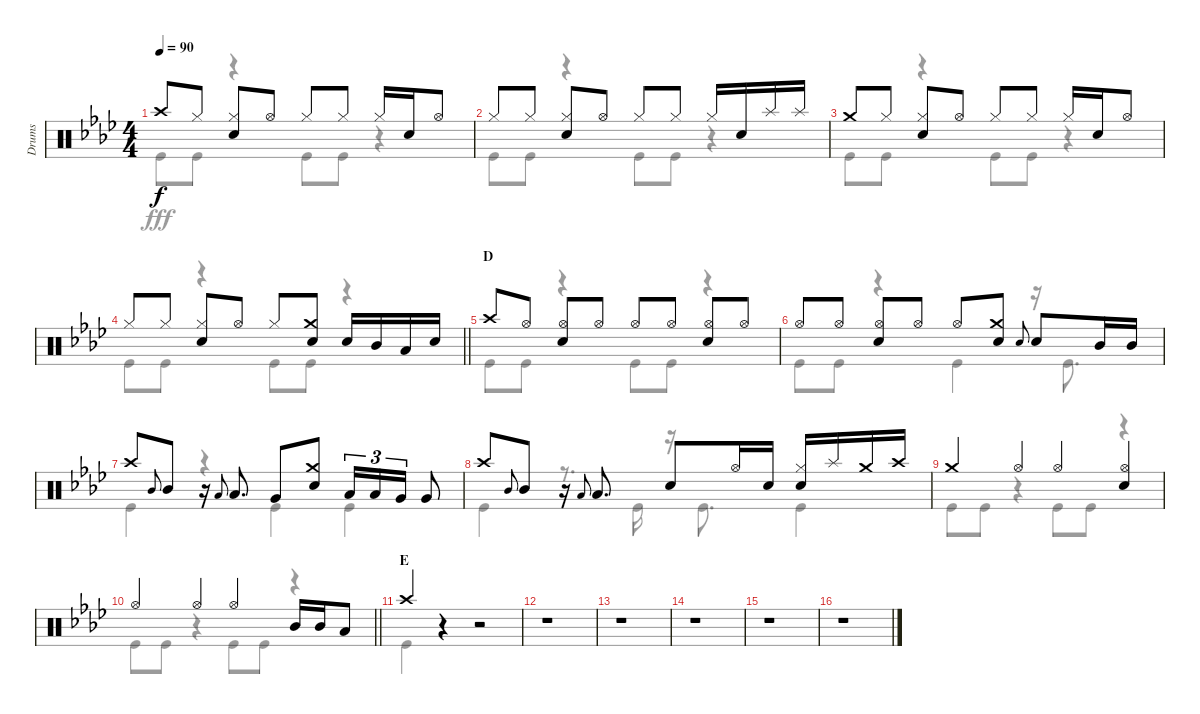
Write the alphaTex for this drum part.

\track ("Drums" "Drums") {instrument percussion}
\staff {score}
\articulation defaults
\voice
\ts (4 4)
\tempo 90
\clef neutral
\ks ab "Crash high (hit)".8{dy f} "Hi-Hat (closed)".8
("Hi-Hat (closed)" "Snare (hit) 2").8 "Hi-Hat (open)".8 "Hi-Hat (closed)".8 "Hi-Hat (closed)".8 "Hi-Hat (closed)".16 "Snare (hit) 2".16 "Hi-Hat (open)".8 |
"Hi-Hat (closed)".8 "Hi-Hat (closed)".8 ("Hi-Hat (closed)" "Snare (hit) 2").8 "Hi-Hat (open)".8 "Hi-Hat (closed)".8 "Hi-Hat (closed)".8 "Hi-Hat (closed)".16 "Snare (hit) 2".16 "Splash (hit)".16 "Splash (hit)".16 |
"Crash medium (hit)".8 "Hi-Hat (closed)".8 ("Hi-Hat (closed)" "Snare (hit) 2").8 "Hi-Hat (open)".8 "Hi-Hat (closed)".8 "Hi-Hat (closed)".8 "Hi-Hat (closed)".16 "Snare (hit) 2".16 "Hi-Hat (open)".8 |
\barLineRight lightlight "Hi-Hat (closed)".8 "Hi-Hat (closed)".8
("Hi-Hat (closed)" "Snare (hit) 2").8 "Hi-Hat (open)".8 "Hi-Hat (closed)".8 ("Crash medium (hit)" "Snare (hit) 2").8 "Snare (hit) 2".16 "Mid Tom (hit)".16 "Low Tom (hit)".16 "Snare (hit) 2".16 |
\section ("" "D")
"Crash high (hit)".8 "Hi-Hat (open)".8 ("Hi-Hat (open)" "Snare (hit) 2").8 "Hi-Hat (open)".8 "Hi-Hat (open)".8 "Hi-Hat (open)".8 ("Hi-Hat (open)" "Snare (hit) 2").8 "Hi-Hat (open)".8 |
"Hi-Hat (open)".8 "Hi-Hat (open)".8 ("Hi-Hat (open)" "Snare (hit) 2").8 "Hi-Hat (open)".8 "Hi-Hat (open)".8 ("Crash medium (hit)" "Snare (hit) 2").8 "Snare (hit) 2".8{gr onbeat} "Snare (hit) 2".8 "Mid Tom (hit)".16 "Mid Tom (hit)".16 |
"Crash high (hit)".8 "Mid Tom (hit)".8{gr onbeat} "Mid Tom (hit)".8 r.16 "Low Tom (hit)".8{gr onbeat} "Low Tom (hit)".8{d} "Very Low Tom (hit)".8 ("Crash medium (hit)" "Snare (hit) 2").8 "Low Tom (hit)".16{tu (3 2)} "Low Tom (hit)".16{tu (3 2)} "Very Low Tom (hit)".16{tu (3 2)} "Very Low Tom (hit)".8 |
"Crash high (hit)".8 "Mid Tom (hit)".8{gr onbeat} "Mid Tom (hit)".8 r.16 "Low Tom (hit)".8{gr onbeat} "Low Tom (hit)".8{d} "Snare (hit) 2".8 "Hi-Hat (open)".16 "Snare (hit) 2".16 ("Hi-Hat (closed)" "Snare (hit) 2").16 "Splash (hit)".16 "Crash medium (hit)".16 "Crash high (hit)".16 |
"Crash medium (hit)".4 "Hi-Hat (open)".4 "Hi-Hat (open)".4 ("Hi-Hat (open)" "Snare (hit) 2").4 |
\barLineRight lightlight "Hi-Hat (open)".4 "Hi-Hat (open)".4 "Hi-Hat (open)".4 "Mid Tom (hit)".16 "Mid Tom (hit)".16 "Low Tom (hit)".8
|
\section ("" "E")
"Crash high (hit)".4 r.4 r.2 |
r.1 |
r.1 |
r.1 |
r.1 |
r.1
\voice
\clef neutral
\ottava regular
\simile none
\ks ab "Kick (hit)".8{dy fff} "Kick (hit)".8
r.4 "Kick (hit)".8 "Kick (hit)".8 r.4 |
"Kick (hit)".8 "Kick (hit)".8 r.4 "Kick (hit)".8 "Kick (hit)".8 r.4 |
"Kick (hit)".8 "Kick (hit)".8 r.4 "Kick (hit)".8 "Kick (hit)".8 r.4 |
\barLineRight lightlight "Kick (hit)".8 "Kick (hit)".8
r.4 "Kick (hit)".8 "Kick (hit)".8 r.4 |
"Kick (hit)".8 "Kick (hit)".8 r.4 "Kick (hit)".8 "Kick (hit)".8 r.4 |
"Kick (hit)".8 "Kick (hit)".8 r.4 "Kick (hit)".4 r.16 "Kick (hit)".8{d} |
"Kick (hit)".4 r.4 "Kick (hit)".4 "Kick (hit)".4 |
"Kick (hit)".4 r.8{d} "Kick (hit)".16 r.16 "Kick (hit)".8{d} "Kick (hit)".4 |
"Kick (hit)".8 "Kick (hit)".8 r.4 "Kick (hit)".8 "Kick (hit)".8 r.4 |
\barLineRight lightlight "Kick (hit)".8 "Kick (hit)".8
r.4 "Kick (hit)".8 "Kick (hit)".8 r.4 |
"Kick (hit)".4 r.4 r.2 |
r.1 |
r.1 |
r.1 |
r.1 |
r.1
